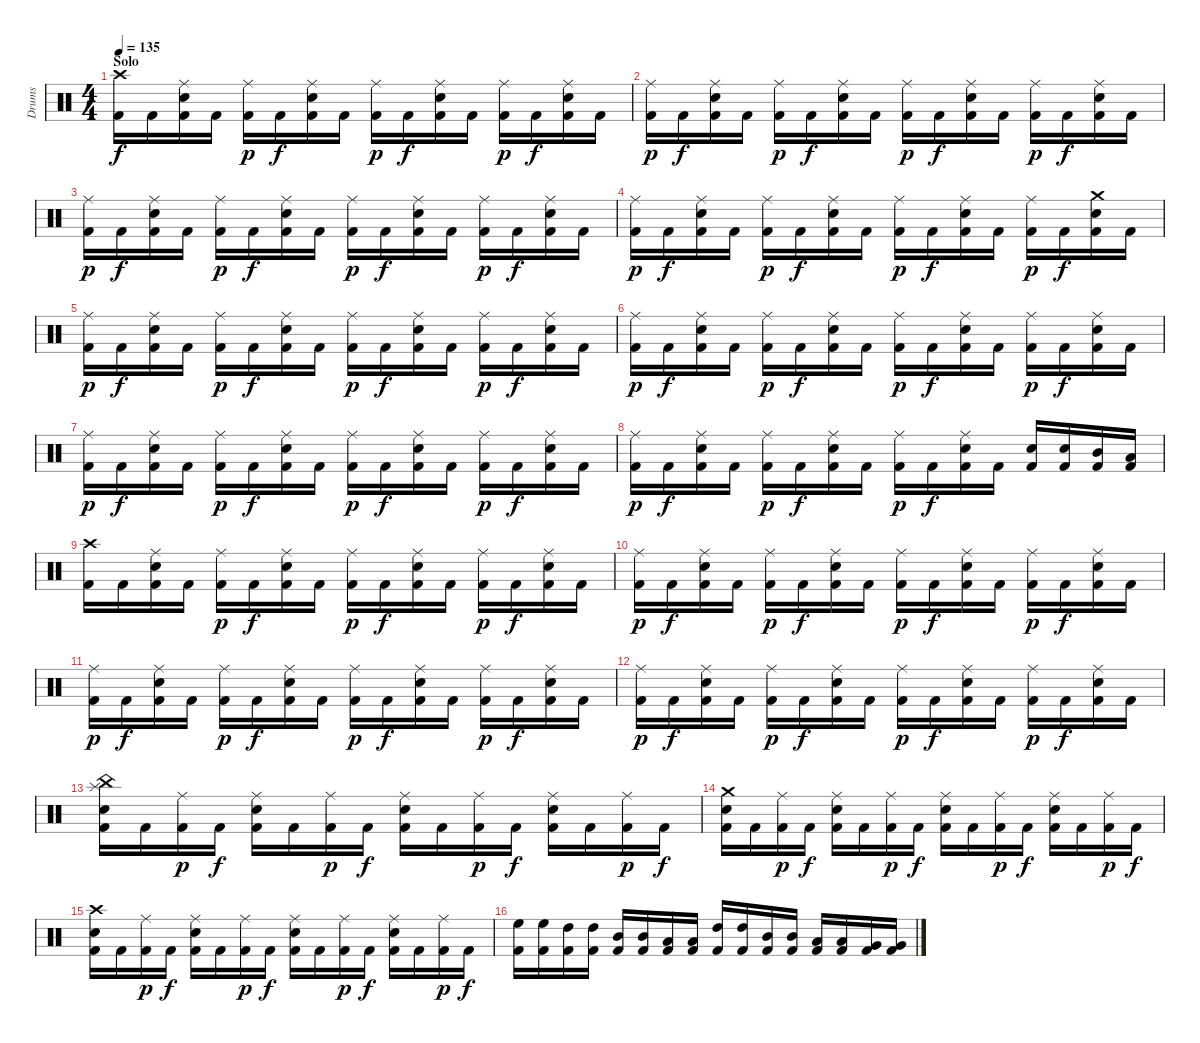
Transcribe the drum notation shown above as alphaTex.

\track ("Drums" "Drums") {instrument percussion}
\staff {score}
\articulation defaults
\ts (4 4)
\section ("" "Solo")
\tempo 135
\clef neutral
\ks c
("Crash high (hit)" "Kick (hit) 2").16{dy f} "Kick (hit) 2".16 ("Ride (middle)" "Snare (hit) 2" "Kick (hit) 2").16 "Kick (hit) 2".16 ("Ride (middle)" "Kick (hit) 2").16{dy p} "Kick (hit) 2".16{dy f} ("Ride (middle)" "Snare (hit) 2" "Kick (hit) 2").16 "Kick (hit) 2".16 ("Ride (middle)" "Kick (hit) 2").16{dy p} "Kick (hit) 2".16{dy f} ("Ride (middle)" "Snare (hit) 2" "Kick (hit) 2").16 "Kick (hit) 2".16 ("Ride (middle)" "Kick (hit) 2").16{dy p} "Kick (hit) 2".16{dy f} ("Ride (middle)" "Snare (hit) 2" "Kick (hit) 2").16 "Kick (hit) 2".16 |
("Ride (middle)" "Kick (hit) 2").16{dy p} "Kick (hit) 2".16{dy f} ("Ride (middle)" "Snare (hit) 2" "Kick (hit) 2").16 "Kick (hit) 2".16 ("Ride (middle)" "Kick (hit) 2").16{dy p} "Kick (hit) 2".16{dy f} ("Ride (middle)" "Snare (hit) 2" "Kick (hit) 2").16 "Kick (hit) 2".16 ("Ride (middle)" "Kick (hit) 2").16{dy p} "Kick (hit) 2".16{dy f} ("Ride (middle)" "Snare (hit) 2" "Kick (hit) 2").16 "Kick (hit) 2".16 ("Ride (middle)" "Kick (hit) 2").16{dy p} "Kick (hit) 2".16{dy f} ("Ride (middle)" "Snare (hit) 2" "Kick (hit) 2").16 "Kick (hit) 2".16 |
("Ride (middle)" "Kick (hit) 2").16{dy p} "Kick (hit) 2".16{dy f} ("Ride (middle)" "Snare (hit) 2" "Kick (hit) 2").16 "Kick (hit) 2".16 ("Ride (middle)" "Kick (hit) 2").16{dy p} "Kick (hit) 2".16{dy f} ("Ride (middle)" "Snare (hit) 2" "Kick (hit) 2").16 "Kick (hit) 2".16 ("Ride (middle)" "Kick (hit) 2").16{dy p} "Kick (hit) 2".16{dy f} ("Ride (middle)" "Snare (hit) 2" "Kick (hit) 2").16 "Kick (hit) 2".16 ("Ride (middle)" "Kick (hit) 2").16{dy p} "Kick (hit) 2".16{dy f} ("Ride (middle)" "Snare (hit) 2" "Kick (hit) 2").16 "Kick (hit) 2".16 |
("Ride (middle)" "Kick (hit) 2").16{dy p} "Kick (hit) 2".16{dy f} ("Ride (middle)" "Snare (hit) 2" "Kick (hit) 2").16 "Kick (hit) 2".16 ("Ride (middle)" "Kick (hit) 2").16{dy p} "Kick (hit) 2".16{dy f} ("Ride (middle)" "Snare (hit) 2" "Kick (hit) 2").16 "Kick (hit) 2".16 ("Ride (middle)" "Kick (hit) 2").16{dy p} "Kick (hit) 2".16{dy f} ("Ride (middle)" "Snare (hit) 2" "Kick (hit) 2").16 "Kick (hit) 2".16 ("Ride (middle)" "Kick (hit) 2").16{dy p} "Kick (hit) 2".16{dy f} ("Crash medium (hit)" "Snare (hit) 2" "Kick (hit) 2").16 "Kick (hit) 2".16 |
("Ride (middle)" "Kick (hit) 2").16{dy p} "Kick (hit) 2".16{dy f} ("Ride (middle)" "Snare (hit) 2" "Kick (hit) 2").16 "Kick (hit) 2".16 ("Ride (middle)" "Kick (hit) 2").16{dy p} "Kick (hit) 2".16{dy f} ("Ride (middle)" "Snare (hit) 2" "Kick (hit) 2").16 "Kick (hit) 2".16 ("Ride (middle)" "Kick (hit) 2").16{dy p} "Kick (hit) 2".16{dy f} ("Ride (middle)" "Snare (hit) 2" "Kick (hit) 2").16 "Kick (hit) 2".16 ("Ride (middle)" "Kick (hit) 2").16{dy p} "Kick (hit) 2".16{dy f} ("Ride (middle)" "Snare (hit) 2" "Kick (hit) 2").16 "Kick (hit) 2".16 |
("Ride (middle)" "Kick (hit) 2").16{dy p} "Kick (hit) 2".16{dy f} ("Ride (middle)" "Snare (hit) 2" "Kick (hit) 2").16 "Kick (hit) 2".16 ("Ride (middle)" "Kick (hit) 2").16{dy p} "Kick (hit) 2".16{dy f} ("Ride (middle)" "Snare (hit) 2" "Kick (hit) 2").16 "Kick (hit) 2".16 ("Ride (middle)" "Kick (hit) 2").16{dy p} "Kick (hit) 2".16{dy f} ("Ride (middle)" "Snare (hit) 2" "Kick (hit) 2").16 "Kick (hit) 2".16 ("Ride (middle)" "Kick (hit) 2").16{dy p} "Kick (hit) 2".16{dy f} ("Ride (middle)" "Snare (hit) 2" "Kick (hit) 2").16 "Kick (hit) 2".16 |
("Ride (middle)" "Kick (hit) 2").16{dy p} "Kick (hit) 2".16{dy f} ("Ride (middle)" "Snare (hit) 2" "Kick (hit) 2").16 "Kick (hit) 2".16 ("Ride (middle)" "Kick (hit) 2").16{dy p} "Kick (hit) 2".16{dy f} ("Ride (middle)" "Snare (hit) 2" "Kick (hit) 2").16 "Kick (hit) 2".16 ("Ride (middle)" "Kick (hit) 2").16{dy p} "Kick (hit) 2".16{dy f} ("Ride (middle)" "Snare (hit) 2" "Kick (hit) 2").16 "Kick (hit) 2".16 ("Ride (middle)" "Kick (hit) 2").16{dy p} "Kick (hit) 2".16{dy f} ("Ride (middle)" "Snare (hit) 2" "Kick (hit) 2").16 "Kick (hit) 2".16 |
("Ride (middle)" "Kick (hit) 2").16{dy p} "Kick (hit) 2".16{dy f} ("Ride (middle)" "Snare (hit) 2" "Kick (hit) 2").16 "Kick (hit) 2".16 ("Ride (middle)" "Kick (hit) 2").16{dy p} "Kick (hit) 2".16{dy f} ("Ride (middle)" "Snare (hit) 2" "Kick (hit) 2").16 "Kick (hit) 2".16 ("Ride (middle)" "Kick (hit) 2").16{dy p} "Kick (hit) 2".16{dy f} ("Ride (middle)" "Snare (hit) 2" "Kick (hit) 2").16 "Kick (hit) 2".16 ("Snare (hit) 2" "Kick (hit) 2").16 ("Snare (hit) 2" "Kick (hit) 2").16 ("Mid Tom (hit)" "Kick (hit) 2").16 ("Low Tom (hit)" "Kick (hit) 2").16 |
("Crash high (hit)" "Kick (hit) 2").16 "Kick (hit) 2".16 ("Ride (middle)" "Snare (hit) 2" "Kick (hit) 2").16 "Kick (hit) 2".16 ("Ride (middle)" "Kick (hit) 2").16{dy p} "Kick (hit) 2".16{dy f} ("Ride (middle)" "Snare (hit) 2" "Kick (hit) 2").16 "Kick (hit) 2".16 ("Ride (middle)" "Kick (hit) 2").16{dy p} "Kick (hit) 2".16{dy f} ("Ride (middle)" "Snare (hit) 2" "Kick (hit) 2").16 "Kick (hit) 2".16 ("Ride (middle)" "Kick (hit) 2").16{dy p} "Kick (hit) 2".16{dy f} ("Ride (middle)" "Snare (hit) 2" "Kick (hit) 2").16 "Kick (hit) 2".16 |
("Ride (middle)" "Kick (hit) 2").16{dy p} "Kick (hit) 2".16{dy f} ("Ride (middle)" "Snare (hit) 2" "Kick (hit) 2").16 "Kick (hit) 2".16 ("Ride (middle)" "Kick (hit) 2").16{dy p} "Kick (hit) 2".16{dy f} ("Ride (middle)" "Snare (hit) 2" "Kick (hit) 2").16 "Kick (hit) 2".16 ("Ride (middle)" "Kick (hit) 2").16{dy p} "Kick (hit) 2".16{dy f} ("Ride (middle)" "Snare (hit) 2" "Kick (hit) 2").16 "Kick (hit) 2".16 ("Ride (middle)" "Kick (hit) 2").16{dy p} "Kick (hit) 2".16{dy f} ("Ride (middle)" "Snare (hit) 2" "Kick (hit) 2").16 "Kick (hit) 2".16 |
("Ride (middle)" "Kick (hit) 2").16{dy p} "Kick (hit) 2".16{dy f} ("Ride (middle)" "Snare (hit) 2" "Kick (hit) 2").16 "Kick (hit) 2".16 ("Ride (middle)" "Kick (hit) 2").16{dy p} "Kick (hit) 2".16{dy f} ("Ride (middle)" "Snare (hit) 2" "Kick (hit) 2").16 "Kick (hit) 2".16 ("Ride (middle)" "Kick (hit) 2").16{dy p} "Kick (hit) 2".16{dy f} ("Ride (middle)" "Snare (hit) 2" "Kick (hit) 2").16 "Kick (hit) 2".16 ("Ride (middle)" "Kick (hit) 2").16{dy p} "Kick (hit) 2".16{dy f} ("Ride (middle)" "Snare (hit) 2" "Kick (hit) 2").16 "Kick (hit) 2".16 |
("Ride (middle)" "Kick (hit) 2").16{dy p} "Kick (hit) 2".16{dy f} ("Ride (middle)" "Snare (hit) 2" "Kick (hit) 2").16 "Kick (hit) 2".16 ("Ride (middle)" "Kick (hit) 2").16{dy p} "Kick (hit) 2".16{dy f} ("Ride (middle)" "Snare (hit) 2" "Kick (hit) 2").16 "Kick (hit) 2".16 ("Ride (middle)" "Kick (hit) 2").16{dy p} "Kick (hit) 2".16{dy f} ("Ride (middle)" "Snare (hit) 2" "Kick (hit) 2").16 "Kick (hit) 2".16 ("Ride (middle)" "Kick (hit) 2").16{dy p} "Kick (hit) 2".16{dy f} ("Ride (middle)" "Snare (hit) 2" "Kick (hit) 2").16 "Kick (hit) 2".16 |
("China (hit)" "Snare (hit) 2" "Splash (hit)" "Kick (hit) 2").16 "Kick (hit) 2".16 ("Ride (middle)" "Kick (hit) 2").16{dy p} "Kick (hit) 2".16{dy f} ("Ride (middle)" "Snare (hit) 2" "Kick (hit) 2").16 "Kick (hit) 2".16 ("Ride (middle)" "Kick (hit) 2").16{dy p} "Kick (hit) 2".16{dy f} ("Ride (middle)" "Snare (hit) 2" "Kick (hit) 2").16 "Kick (hit) 2".16 ("Ride (middle)" "Kick (hit) 2").16{dy p} "Kick (hit) 2".16{dy f} ("Ride (middle)" "Snare (hit) 2" "Kick (hit) 2").16 "Kick (hit) 2".16 ("Ride (middle)" "Kick (hit) 2").16{dy p} "Kick (hit) 2".16{dy f} |
("Crash medium (hit)" "Snare (hit) 2" "Kick (hit) 2").16 "Kick (hit) 2".16 ("Ride (middle)" "Kick (hit) 2").16{dy p} "Kick (hit) 2".16{dy f} ("Ride (middle)" "Snare (hit) 2" "Kick (hit) 2").16 "Kick (hit) 2".16 ("Ride (middle)" "Kick (hit) 2").16{dy p} "Kick (hit) 2".16{dy f} ("Ride (middle)" "Snare (hit) 2" "Kick (hit) 2").16 "Kick (hit) 2".16 ("Ride (middle)" "Kick (hit) 2").16{dy p} "Kick (hit) 2".16{dy f} ("Ride (middle)" "Snare (hit) 2" "Kick (hit) 2").16 "Kick (hit) 2".16 ("Ride (middle)" "Kick (hit) 2").16{dy p} "Kick (hit) 2".16{dy f} |
("Crash high (hit)" "Snare (hit) 2" "Kick (hit) 2").16 "Kick (hit) 2".16 ("Ride (middle)" "Kick (hit) 2").16{dy p} "Kick (hit) 2".16{dy f} ("Ride (middle)" "Snare (hit) 2" "Kick (hit) 2").16 "Kick (hit) 2".16 ("Ride (middle)" "Kick (hit) 2").16{dy p} "Kick (hit) 2".16{dy f} ("Ride (middle)" "Snare (hit) 2" "Kick (hit) 2").16 "Kick (hit) 2".16 ("Ride (middle)" "Kick (hit) 2").16{dy p} "Kick (hit) 2".16{dy f} ("Ride (middle)" "Snare (hit) 2" "Kick (hit) 2").16 "Kick (hit) 2".16 ("Ride (middle)" "Kick (hit) 2").16{dy p} "Kick (hit) 2".16{dy f} |
("High Floor Tom (hit)" "Kick (hit) 2").16 ("High Floor Tom (hit)" "Kick (hit) 2").16 ("High Tom (hit)" "Kick (hit) 2").16 ("High Tom (hit)" "Kick (hit) 2").16 ("Mid Tom (hit)" "Kick (hit) 2").16 ("Mid Tom (hit)" "Kick (hit) 2").16 ("Low Tom (hit)" "Kick (hit) 2").16 ("Low Tom (hit)" "Kick (hit) 2").16 ("High Tom (hit)" "Kick (hit) 2").16 ("High Tom (hit)" "Kick (hit) 2").16 ("Mid Tom (hit)" "Kick (hit) 2").16 ("Mid Tom (hit)" "Kick (hit) 2").16 ("Low Tom (hit)" "Kick (hit) 2").16 ("Low Tom (hit)" "Kick (hit) 2").16 ("Very Low Tom (hit)" "Kick (hit) 2").16 ("Very Low Tom (hit)" "Kick (hit) 2").16
